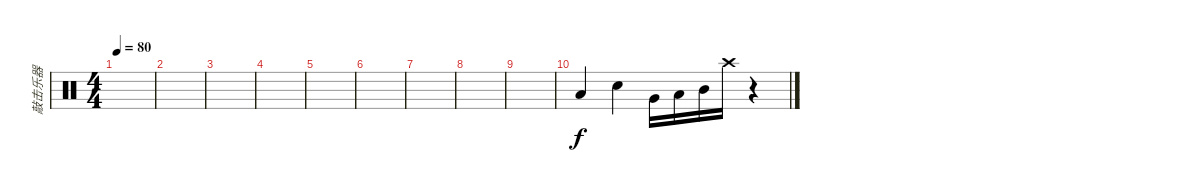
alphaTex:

\track ("敲击乐器" "敲击乐器") {instrument percussion}
\staff {score}
\articulation defaults
\ts (4 4)
\tempo 80
\clef neutral
\ks c
|
|
|
|
|
|
|
|
|
"Low Floor Tom (hit)".4 "Electric Snare (hit)".4 "Very Low Tom (hit)".16 "Low Tom (hit)".16 "Mid Tom (hit)".16 "Crash high (hit)".16 r.4
